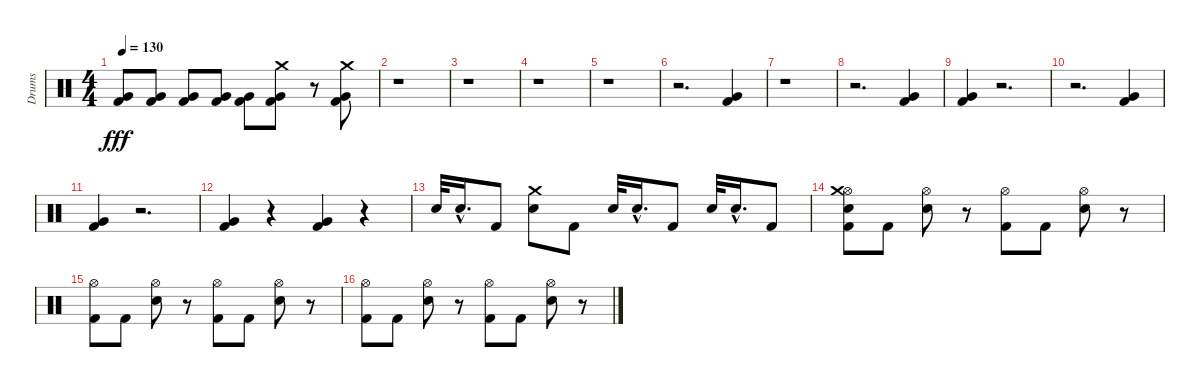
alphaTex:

\track ("Drums" "Drums") {instrument percussion}
\staff {score}
\articulation defaults
\ts (4 4)
\tempo 130
\clef neutral
\ks c
("Very Low Tom (hit)" "Kick (hit) 2").8{dy fff} ("Very Low Tom (hit)" "Kick (hit) 2").8 ("Very Low Tom (hit)" "Kick (hit) 2").8 ("Very Low Tom (hit)" "Kick (hit) 2").8 ("Very Low Tom (hit)" "Kick (hit) 2").8 ("Very Low Tom (hit)" "Kick (hit) 2" "Crash medium (hit)").8 r.8 ("Very Low Tom (hit)" "Kick (hit) 2" "Crash medium (hit)").8 |
r.1 |
r.1 |
r.1 |
r.1 |
r.2{d} ("Very Low Tom (hit)" "Kick (hit) 2").4 |
r.1 |
r.2{d} ("Very Low Tom (hit)" "Kick (hit) 2").4 |
("Very Low Tom (hit)" "Kick (hit) 2").4 r.2{d} |
r.2{d} ("Very Low Tom (hit)" "Kick (hit) 2").4 |
("Very Low Tom (hit)" "Kick (hit) 2").4 r.2{d} |
("Very Low Tom (hit)" "Kick (hit) 2").4 r.4 ("Very Low Tom (hit)" "Kick (hit) 2").4 r.4 |
"Snare (hit) 2".32 "Snare (hit) 2"{hac}.16{d} "Kick (hit) 2".8 ("Snare (hit) 2" "Crash medium (hit)").8 "Kick (hit) 2".8 "Snare (hit) 2".32 "Snare (hit) 2"{hac}.16{d} "Kick (hit) 2".8 "Snare (hit) 2".32 "Snare (hit) 2"{hac}.16{d} "Kick (hit) 2".8 |
("Kick (hit) 2" "Hi-Hat (open)" "Crash medium (hit)" "Snare (hit) 2").8 "Kick (hit) 2".8 ("Snare (hit) 2" "Hi-Hat (open)").8 r.8 ("Kick (hit) 2" "Hi-Hat (open)").8 "Kick (hit) 2".8 ("Snare (hit) 2" "Hi-Hat (open)").8 r.8 |
("Kick (hit) 2" "Hi-Hat (open)").8 "Kick (hit) 2".8 ("Snare (hit) 2" "Hi-Hat (open)").8 r.8 ("Kick (hit) 2" "Hi-Hat (open)").8 "Kick (hit) 2".8 ("Snare (hit) 2" "Hi-Hat (open)").8 r.8 |
("Kick (hit) 2" "Hi-Hat (open)").8 "Kick (hit) 2".8 ("Snare (hit) 2" "Hi-Hat (open)").8 r.8 ("Kick (hit) 2" "Hi-Hat (open)").8 "Kick (hit) 2".8 ("Snare (hit) 2" "Hi-Hat (open)").8 r.8
